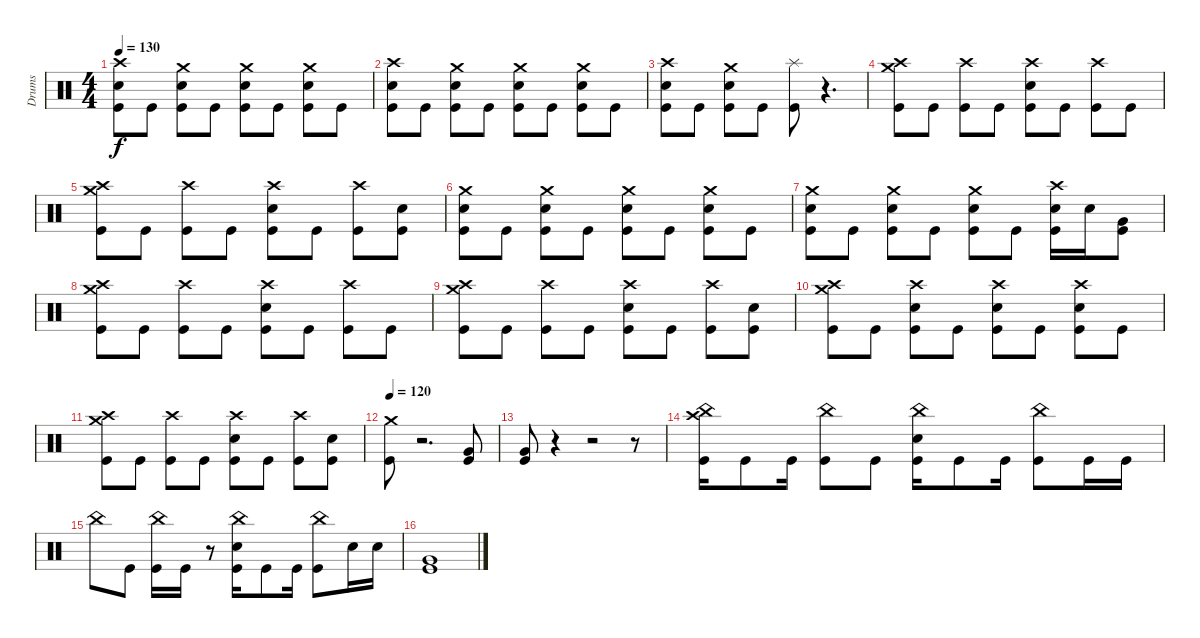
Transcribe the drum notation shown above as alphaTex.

\track ("Drums" "Drums") {instrument percussion}
\staff {score}
\articulation defaults
\ts (4 4)
\tempo 130
\clef neutral
\ks c
("Crash high (hit)" "Snare (hit) 2" "Kick (hit)").8{dy f} "Kick (hit)".8 ("Crash medium (hit)" "Snare (hit) 2" "Kick (hit)").8 "Kick (hit)".8 ("Crash medium (hit)" "Snare (hit) 2" "Kick (hit)").8 "Kick (hit)".8 ("Crash medium (hit)" "Snare (hit) 2" "Kick (hit)").8 "Kick (hit)".8 |
("Crash high (hit)" "Snare (hit) 2" "Kick (hit)").8 "Kick (hit)".8 ("Crash medium (hit)" "Snare (hit) 2" "Kick (hit)").8 "Kick (hit)".8 ("Crash medium (hit)" "Snare (hit) 2" "Kick (hit)").8 "Kick (hit)".8 ("Crash medium (hit)" "Snare (hit) 2" "Kick (hit)").8 "Kick (hit)".8 |
("Crash high (hit)" "Snare (hit) 2" "Kick (hit)").8 "Kick (hit)".8 ("Crash medium (hit)" "Snare (hit) 2" "Kick (hit)").8 "Kick (hit)".8 ("Splash (hit)" "Kick (hit)").8 r.4{d} |
("Crash high (hit)" "Crash medium (hit)" "Kick (hit)").8 "Kick (hit)".8 ("Crash high (hit)" "Kick (hit)").8 "Kick (hit)".8 ("Crash high (hit)" "Snare (hit) 2" "Kick (hit)").8 "Kick (hit)".8 ("Crash high (hit)" "Kick (hit)").8 "Kick (hit)".8 |
("Crash high (hit)" "Crash medium (hit)" "Kick (hit)").8 "Kick (hit)".8 ("Crash high (hit)" "Kick (hit)").8 "Kick (hit)".8 ("Crash high (hit)" "Snare (hit) 2" "Kick (hit)").8 "Kick (hit)".8 ("Crash high (hit)" "Kick (hit)").8 ("Snare (hit) 2" "Kick (hit)").8 |
("Crash medium (hit)" "Snare (hit) 2" "Kick (hit)").8 "Kick (hit)".8 ("Crash medium (hit)" "Snare (hit) 2" "Kick (hit)").8 "Kick (hit)".8 ("Crash medium (hit)" "Snare (hit) 2" "Kick (hit)").8 "Kick (hit)".8 ("Crash medium (hit)" "Snare (hit) 2" "Kick (hit)").8 "Kick (hit)".8 |
("Crash medium (hit)" "Snare (hit) 2" "Kick (hit)").8 "Kick (hit)".8 ("Crash medium (hit)" "Snare (hit) 2" "Kick (hit)").8 "Kick (hit)".8 ("Crash medium (hit)" "Snare (hit) 2" "Kick (hit)").8 "Kick (hit)".8 ("Crash high (hit)" "Snare (hit) 2" "Kick (hit)").16 "Snare (hit) 2".16 ("Very Low Tom (hit)" "Kick (hit)").8 |
("Crash high (hit)" "Crash medium (hit)" "Kick (hit)").8 "Kick (hit)".8 ("Crash high (hit)" "Kick (hit)").8 "Kick (hit)".8 ("Crash high (hit)" "Snare (hit) 2" "Kick (hit)").8 "Kick (hit)".8 ("Crash high (hit)" "Kick (hit)").8 "Kick (hit)".8 |
("Crash high (hit)" "Crash medium (hit)" "Kick (hit)").8 "Kick (hit)".8 ("Crash high (hit)" "Kick (hit)").8 "Kick (hit)".8 ("Crash high (hit)" "Snare (hit) 2" "Kick (hit)").8 "Kick (hit)".8 ("Crash high (hit)" "Kick (hit)").8 ("Snare (hit) 2" "Kick (hit)").8 |
("Crash high (hit)" "Crash medium (hit)" "Kick (hit)").8 "Kick (hit)".8 ("Crash high (hit)" "Snare (hit) 2" "Kick (hit)").8 "Kick (hit)".8 ("Crash high (hit)" "Snare (hit) 2" "Kick (hit)").8 "Kick (hit)".8 ("Crash high (hit)" "Snare (hit) 2" "Kick (hit)").8 "Kick (hit)".8 |
("Crash high (hit)" "Crash medium (hit)" "Kick (hit)").8 "Kick (hit)".8 ("Crash high (hit)" "Kick (hit)").8 "Kick (hit)".8 ("Crash high (hit)" "Snare (hit) 2" "Kick (hit)").8 "Kick (hit)".8 ("Crash high (hit)" "Kick (hit)").8 ("Snare (hit) 2" "Kick (hit)").8 |
\tempo 120
("Crash medium (hit)" "Kick (hit)").8 r.2{d} ("Very Low Tom (hit)" "Kick (hit)").8 |
("Very Low Tom (hit)" "Kick (hit)").8 r.4 r.2 r.8 |
("Crash high (hit)" "China (hit)" "Kick (hit)").16 "Kick (hit)".8 "Kick (hit)".16 ("China (hit)" "Kick (hit)").8 "Kick (hit)".8 ("China (hit)" "Snare (hit) 2" "Kick (hit)").16 "Kick (hit)".8 "Kick (hit)".16 ("China (hit)" "Kick (hit)").8 "Kick (hit)".16 "Kick (hit)".16 |
"China (hit)".8 "Kick (hit)".8 ("China (hit)" "Kick (hit)").16 "Kick (hit)".16 r.8 ("China (hit)" "Snare (hit) 2" "Kick (hit)").16 "Kick (hit)".8 "Kick (hit)".16 ("China (hit)" "Kick (hit)").8 "Snare (hit) 2".16 "Snare (hit) 2".16 |
("Very Low Tom (hit)" "Kick (hit)").1
